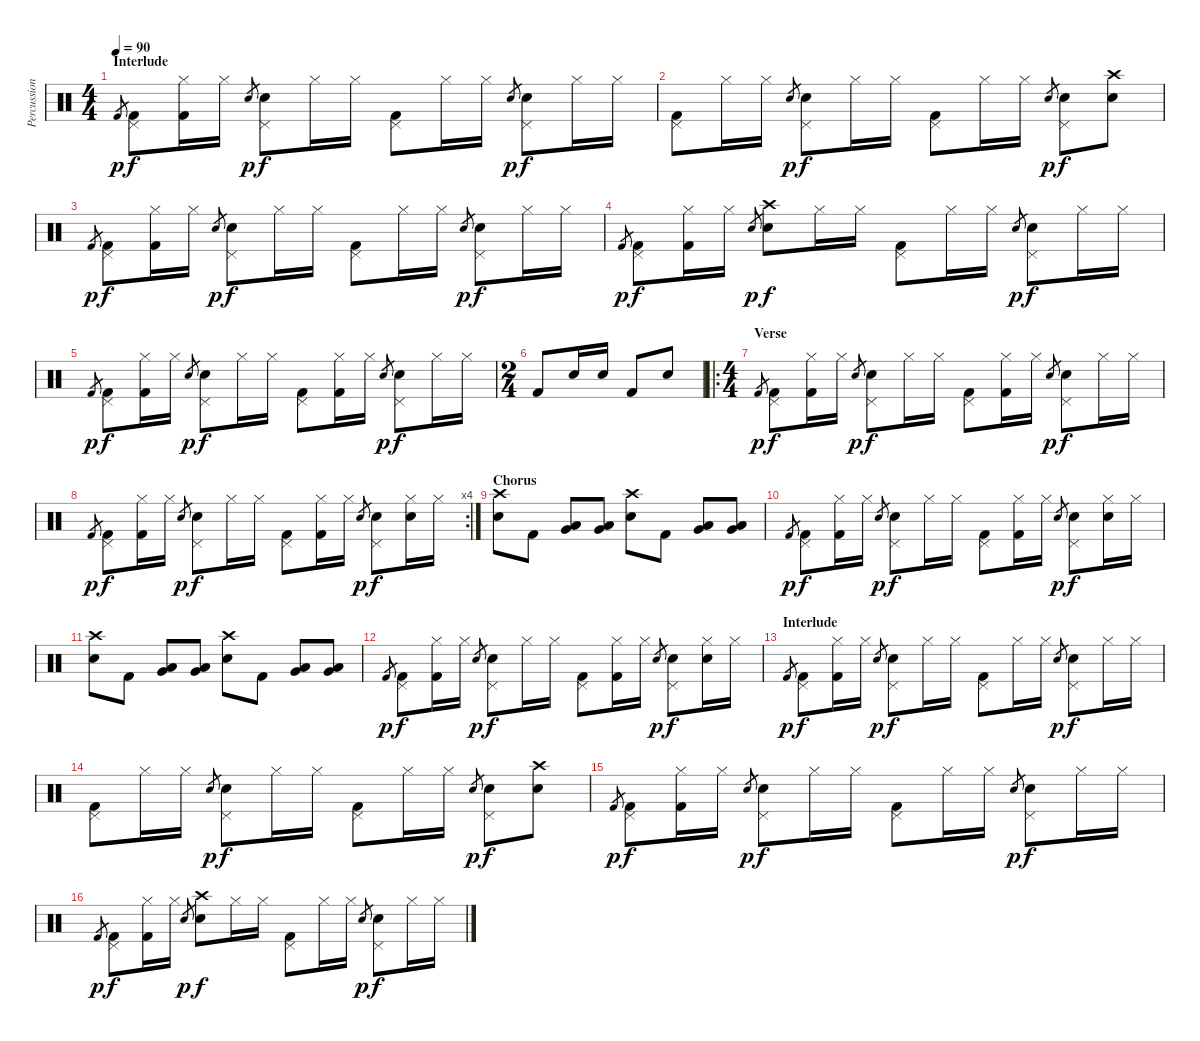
\track ("Percussion" "Percussion") {instrument percussion}
\staff {score}
\articulation defaults
\ts (4 4)
\section ("" "Interlude")
\tempo 90
\clef neutral
\ks c "Kick (hit) 2".8{gr dy p}
("Pedal Hi-Hat (hit)" "Kick (hit) 2").8{dy f} ("Hi-Hat (closed)" "Kick (hit) 2").16 "Hi-Hat (closed)".16 "Snare (hit) 2".8{gr dy p} ("Pedal Hi-Hat (hit)" "Snare (hit) 2").8{dy f} "Hi-Hat (closed)".16 "Hi-Hat (closed)".16 ("Pedal Hi-Hat (hit)" "Kick (hit) 2").8 "Hi-Hat (closed)".16 "Hi-Hat (closed)".16 "Snare (hit) 2".8{gr dy p} ("Pedal Hi-Hat (hit)" "Snare (hit) 2").8{dy f} "Hi-Hat (closed)".16 "Hi-Hat (closed)".16 |
("Pedal Hi-Hat (hit)" "Kick (hit) 2").8 "Hi-Hat (closed)".16 "Hi-Hat (closed)".16 "Snare (hit) 2".8{gr dy p} ("Pedal Hi-Hat (hit)" "Snare (hit) 2").8{dy f} "Hi-Hat (closed)".16 "Hi-Hat (closed)".16 ("Pedal Hi-Hat (hit)" "Kick (hit) 2").8 "Hi-Hat (closed)".16 "Hi-Hat (closed)".16 "Snare (hit) 2".8{gr dy p} ("Pedal Hi-Hat (hit)" "Snare (hit) 2").8{dy f} ("Crash high (hit)" "Snare (hit) 2").8 |
"Kick (hit) 2".8{gr dy p} ("Pedal Hi-Hat (hit)" "Kick (hit) 2").8{dy f} ("Hi-Hat (closed)" "Kick (hit) 2").16 "Hi-Hat (closed)".16 "Snare (hit) 2".8{gr dy p} ("Pedal Hi-Hat (hit)" "Snare (hit) 2").8{dy f} "Hi-Hat (closed)".16 "Hi-Hat (closed)".16 ("Pedal Hi-Hat (hit)" "Kick (hit) 2").8 "Hi-Hat (closed)".16 "Hi-Hat (closed)".16 "Snare (hit) 2".8{gr dy p} ("Pedal Hi-Hat (hit)" "Snare (hit) 2").8{dy f} "Hi-Hat (closed)".16 "Hi-Hat (closed)".16 |
"Kick (hit) 2".8{gr dy p} ("Pedal Hi-Hat (hit)" "Kick (hit) 2").8{dy f} ("Hi-Hat (closed)" "Kick (hit) 2").16 "Hi-Hat (closed)".16 "Snare (hit) 2".8{gr dy p} ("Crash high (hit)" "Snare (hit) 2").8{dy f} "Hi-Hat (closed)".16 "Hi-Hat (closed)".16 ("Pedal Hi-Hat (hit)" "Kick (hit) 2").8 "Hi-Hat (closed)".16 "Hi-Hat (closed)".16 "Snare (hit) 2".8{gr dy p} ("Pedal Hi-Hat (hit)" "Snare (hit) 2").8{dy f} "Hi-Hat (closed)".16 "Hi-Hat (closed)".16 |
"Kick (hit) 2".8{gr dy p} ("Pedal Hi-Hat (hit)" "Kick (hit) 2").8{dy f} ("Hi-Hat (closed)" "Kick (hit) 2").16 "Hi-Hat (closed)".16 "Snare (hit) 2".8{gr dy p} ("Pedal Hi-Hat (hit)" "Snare (hit) 2").8{dy f} "Hi-Hat (closed)".16 "Hi-Hat (closed)".16 ("Pedal Hi-Hat (hit)" "Kick (hit) 2").8 ("Hi-Hat (closed)" "Kick (hit) 2").16 "Hi-Hat (closed)".16 "Snare (hit) 2".8{gr dy p} ("Pedal Hi-Hat (hit)" "Snare (hit) 2").8{dy f} "Hi-Hat (closed)".16 "Hi-Hat (closed)".16 |
\ts (2 4)
"Kick (hit) 2".8 "Snare (hit) 2".16 "Snare (hit) 2".16 "Kick (hit) 2".8 "Snare (hit) 2".8 |
\ro
\ts (4 4)
\section ("" "Verse")
"Kick (hit) 2".8{gr dy p} ("Pedal Hi-Hat (hit)" "Kick (hit) 2").8{dy f} ("Hi-Hat (closed)" "Kick (hit) 2").16 "Hi-Hat (closed)".16 "Snare (hit) 2".8{gr dy p} ("Pedal Hi-Hat (hit)" "Snare (hit) 2").8{dy f} "Hi-Hat (closed)".16 "Hi-Hat (closed)".16 ("Pedal Hi-Hat (hit)" "Kick (hit) 2").8 ("Hi-Hat (closed)" "Kick (hit) 2").16 "Hi-Hat (closed)".16 "Snare (hit) 2".8{gr dy p} ("Pedal Hi-Hat (hit)" "Snare (hit) 2").8{dy f} "Hi-Hat (closed)".16 "Hi-Hat (closed)".16 |
\rc 4 "Kick (hit) 2".8{gr dy p}
("Pedal Hi-Hat (hit)" "Kick (hit) 2").8{dy f} ("Hi-Hat (closed)" "Kick (hit) 2").16 "Hi-Hat (closed)".16 "Snare (hit) 2".8{gr dy p} ("Pedal Hi-Hat (hit)" "Snare (hit) 2").8{dy f} "Hi-Hat (closed)".16 "Hi-Hat (closed)".16 ("Pedal Hi-Hat (hit)" "Kick (hit) 2").8 ("Hi-Hat (closed)" "Kick (hit) 2").16 "Hi-Hat (closed)".16 "Snare (hit) 2".8{gr dy p} ("Pedal Hi-Hat (hit)" "Snare (hit) 2").8{dy f} ("Hi-Hat (closed)" "Snare (hit) 2").16 "Hi-Hat (closed)".16 |
\section ("" "Chorus")
("Crash high (hit)" "Snare (hit) 2").8 "Kick (hit) 2".8 ("Low Floor Tom (hit)" "Very Low Tom (hit)").8 ("Low Floor Tom (hit)" "Very Low Tom (hit)").8 ("Crash high (hit)" "Snare (hit) 2").8 "Kick (hit) 2".8 ("Low Floor Tom (hit)" "Very Low Tom (hit)").8 ("Low Floor Tom (hit)" "Very Low Tom (hit)").8 |
"Kick (hit) 2".8{gr dy p} ("Pedal Hi-Hat (hit)" "Kick (hit) 2").8{dy f} ("Hi-Hat (closed)" "Kick (hit) 2").16 "Hi-Hat (closed)".16 "Snare (hit) 2".8{gr dy p} ("Pedal Hi-Hat (hit)" "Snare (hit) 2").8{dy f} "Hi-Hat (closed)".16 "Hi-Hat (closed)".16 ("Pedal Hi-Hat (hit)" "Kick (hit) 2").8 ("Hi-Hat (closed)" "Kick (hit) 2").16 "Hi-Hat (closed)".16 "Snare (hit) 2".8{gr dy p} ("Pedal Hi-Hat (hit)" "Snare (hit) 2").8{dy f} ("Hi-Hat (closed)" "Snare (hit) 2").16 "Hi-Hat (closed)".16 |
("Crash high (hit)" "Snare (hit) 2").8 "Kick (hit) 2".8 ("Low Floor Tom (hit)" "Very Low Tom (hit)").8 ("Low Floor Tom (hit)" "Very Low Tom (hit)").8 ("Crash high (hit)" "Snare (hit) 2").8 "Kick (hit) 2".8 ("Low Floor Tom (hit)" "Very Low Tom (hit)").8 ("Low Floor Tom (hit)" "Very Low Tom (hit)").8 |
"Kick (hit) 2".8{gr dy p} ("Pedal Hi-Hat (hit)" "Kick (hit) 2").8{dy f} ("Hi-Hat (closed)" "Kick (hit) 2").16 "Hi-Hat (closed)".16 "Snare (hit) 2".8{gr dy p} ("Pedal Hi-Hat (hit)" "Snare (hit) 2").8{dy f} "Hi-Hat (closed)".16 "Hi-Hat (closed)".16 ("Pedal Hi-Hat (hit)" "Kick (hit) 2").8 ("Hi-Hat (closed)" "Kick (hit) 2").16 "Hi-Hat (closed)".16 "Snare (hit) 2".8{gr dy p} ("Pedal Hi-Hat (hit)" "Snare (hit) 2").8{dy f} ("Hi-Hat (closed)" "Snare (hit) 2").16 "Hi-Hat (closed)".16 |
\section ("" "Interlude")
"Kick (hit) 2".8{gr dy p} ("Pedal Hi-Hat (hit)" "Kick (hit) 2").8{dy f} ("Hi-Hat (closed)" "Kick (hit) 2").16 "Hi-Hat (closed)".16 "Snare (hit) 2".8{gr dy p} ("Pedal Hi-Hat (hit)" "Snare (hit) 2").8{dy f} "Hi-Hat (closed)".16 "Hi-Hat (closed)".16 ("Pedal Hi-Hat (hit)" "Kick (hit) 2").8 "Hi-Hat (closed)".16 "Hi-Hat (closed)".16 "Snare (hit) 2".8{gr dy p} ("Pedal Hi-Hat (hit)" "Snare (hit) 2").8{dy f} "Hi-Hat (closed)".16 "Hi-Hat (closed)".16 |
("Pedal Hi-Hat (hit)" "Kick (hit) 2").8 "Hi-Hat (closed)".16 "Hi-Hat (closed)".16 "Snare (hit) 2".8{gr dy p} ("Pedal Hi-Hat (hit)" "Snare (hit) 2").8{dy f} "Hi-Hat (closed)".16 "Hi-Hat (closed)".16 ("Pedal Hi-Hat (hit)" "Kick (hit) 2").8 "Hi-Hat (closed)".16 "Hi-Hat (closed)".16 "Snare (hit) 2".8{gr dy p} ("Pedal Hi-Hat (hit)" "Snare (hit) 2").8{dy f} ("Crash high (hit)" "Snare (hit) 2").8 |
"Kick (hit) 2".8{gr dy p} ("Pedal Hi-Hat (hit)" "Kick (hit) 2").8{dy f} ("Hi-Hat (closed)" "Kick (hit) 2").16 "Hi-Hat (closed)".16 "Snare (hit) 2".8{gr dy p} ("Pedal Hi-Hat (hit)" "Snare (hit) 2").8{dy f} "Hi-Hat (closed)".16 "Hi-Hat (closed)".16 ("Pedal Hi-Hat (hit)" "Kick (hit) 2").8 "Hi-Hat (closed)".16 "Hi-Hat (closed)".16 "Snare (hit) 2".8{gr dy p} ("Pedal Hi-Hat (hit)" "Snare (hit) 2").8{dy f} "Hi-Hat (closed)".16 "Hi-Hat (closed)".16 |
"Kick (hit) 2".8{gr dy p} ("Pedal Hi-Hat (hit)" "Kick (hit) 2").8{dy f} ("Hi-Hat (closed)" "Kick (hit) 2").16 "Hi-Hat (closed)".16 "Snare (hit) 2".8{gr dy p} ("Crash high (hit)" "Snare (hit) 2").8{dy f} "Hi-Hat (closed)".16 "Hi-Hat (closed)".16 ("Pedal Hi-Hat (hit)" "Kick (hit) 2").8 "Hi-Hat (closed)".16 "Hi-Hat (closed)".16 "Snare (hit) 2".8{gr dy p} ("Pedal Hi-Hat (hit)" "Snare (hit) 2").8{dy f} "Hi-Hat (closed)".16 "Hi-Hat (closed)".16
